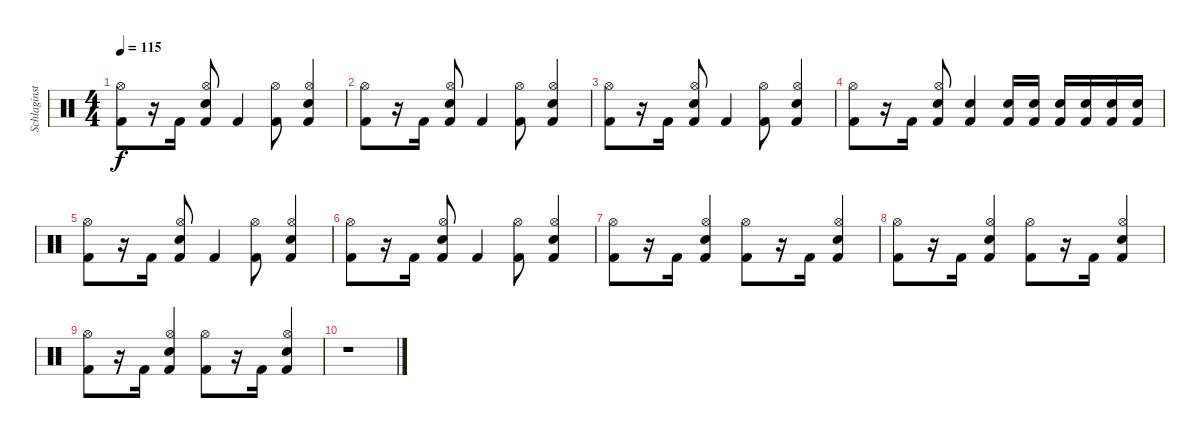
\track ("Schlaginstrumente - Auswahl" "Schlaginst") {instrument percussion}
\staff {score}
\articulation defaults
\ts (4 4)
\tempo 115
\clef neutral
\ks c
("Kick (hit) 2" "Hi-Hat (open)").8{dy f} r.16 "Kick (hit) 2".16 ("Kick (hit) 2" "Snare (hit) 2" "Hi-Hat (open)").8 "Kick (hit) 2".4 ("Kick (hit) 2" "Hi-Hat (open)").8 ("Kick (hit) 2" "Snare (hit) 2" "Hi-Hat (open)").4 |
("Kick (hit) 2" "Hi-Hat (open)").8 r.16 "Kick (hit) 2".16 ("Kick (hit) 2" "Snare (hit) 2" "Hi-Hat (open)").8 "Kick (hit) 2".4 ("Kick (hit) 2" "Hi-Hat (open)").8 ("Kick (hit) 2" "Snare (hit) 2" "Hi-Hat (open)").4 |
("Kick (hit) 2" "Hi-Hat (open)").8 r.16 "Kick (hit) 2".16 ("Kick (hit) 2" "Snare (hit) 2" "Hi-Hat (open)").8 "Kick (hit) 2".4 ("Kick (hit) 2" "Hi-Hat (open)").8 ("Kick (hit) 2" "Snare (hit) 2" "Hi-Hat (open)").4 |
("Kick (hit) 2" "Hi-Hat (open)").8 r.16 "Kick (hit) 2".16 ("Kick (hit) 2" "Snare (hit) 2" "Hi-Hat (open)").8 ("Kick (hit) 2" "Snare (hit) 2").4 ("Kick (hit) 2" "Snare (hit) 2").16 ("Kick (hit) 2" "Snare (hit) 2").16 ("Kick (hit) 2" "Snare (hit) 2").16 ("Kick (hit) 2" "Snare (hit) 2").16 ("Kick (hit) 2" "Snare (hit) 2").16 ("Kick (hit) 2" "Snare (hit) 2").16 |
("Kick (hit) 2" "Hi-Hat (open)").8 r.16 "Kick (hit) 2".16 ("Kick (hit) 2" "Snare (hit) 2" "Hi-Hat (open)").8 "Kick (hit) 2".4 ("Kick (hit) 2" "Hi-Hat (open)").8 ("Kick (hit) 2" "Snare (hit) 2" "Hi-Hat (open)").4 |
("Kick (hit) 2" "Hi-Hat (open)").8 r.16 "Kick (hit) 2".16 ("Kick (hit) 2" "Snare (hit) 2" "Hi-Hat (open)").8 "Kick (hit) 2".4 ("Kick (hit) 2" "Hi-Hat (open)").8 ("Kick (hit) 2" "Snare (hit) 2" "Hi-Hat (open)").4 |
("Kick (hit) 2" "Hi-Hat (open)").8 r.16 "Kick (hit) 2".16 ("Kick (hit) 2" "Snare (hit) 2" "Hi-Hat (open)").4 ("Kick (hit) 2" "Hi-Hat (open)").8 r.16 "Kick (hit) 2".16 ("Kick (hit) 2" "Snare (hit) 2" "Hi-Hat (open)").4 |
("Kick (hit) 2" "Hi-Hat (open)").8 r.16 "Kick (hit) 2".16 ("Kick (hit) 2" "Snare (hit) 2" "Hi-Hat (open)").4 ("Kick (hit) 2" "Hi-Hat (open)").8 r.16 "Kick (hit) 2".16 ("Kick (hit) 2" "Snare (hit) 2" "Hi-Hat (open)").4 |
("Kick (hit) 2" "Hi-Hat (open)").8 r.16 "Kick (hit) 2".16 ("Kick (hit) 2" "Snare (hit) 2" "Hi-Hat (open)").4 ("Kick (hit) 2" "Hi-Hat (open)").8 r.16 "Kick (hit) 2".16 ("Kick (hit) 2" "Snare (hit) 2" "Hi-Hat (open)").4 |
r.1
